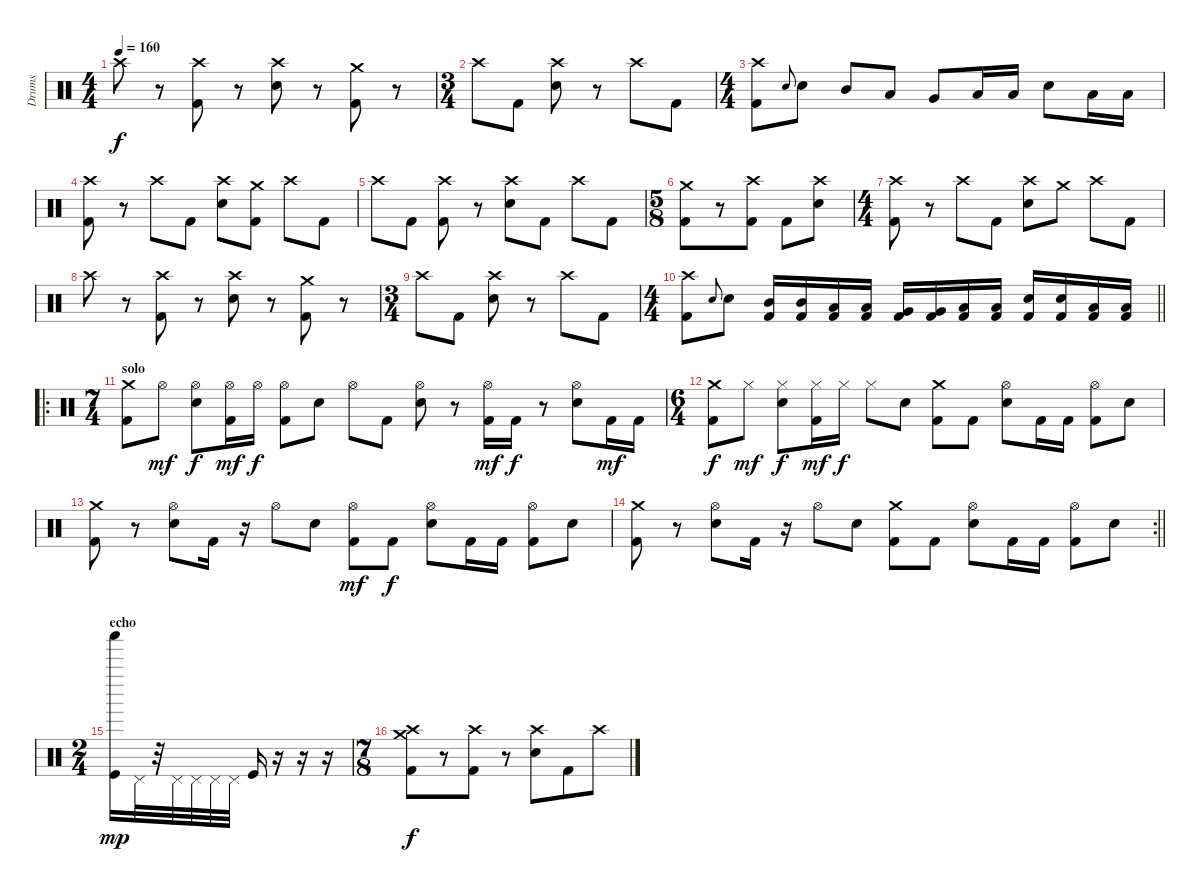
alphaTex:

\track ("Drums" "Drums") {instrument percussion}
\staff {score}
\articulation defaults
\ts (4 4)
\tempo 160
\clef neutral
\ks c "Crash high (hit)".8{dy f}
r.8 ("Crash high (hit)" "Kick (hit) 2").8 r.8 ("Crash high (hit)" "Electric Snare (hit)").8 r.8 ("Crash medium (hit)" "Kick (hit) 2").8 r.8 |
\ts (3 4)
"Crash high (hit)".8 "Kick (hit) 2".8 ("Crash high (hit)" "Electric Snare (hit)").8 r.8 "Crash high (hit)".8 "Kick (hit) 2".8 |
\ts (4 4)
("Crash high (hit)" "Kick (hit) 2").8 "Electric Snare (hit)".8{gr onbeat} "Electric Snare (hit)".8 "Mid Tom (hit)".8 "Low Tom (hit)".8 "Very Low Tom (hit)".8 "Low Tom (hit)".16 "Low Tom (hit)".16 "Electric Snare (hit)".8 "Low Tom (hit)".16 "Low Tom (hit)".16 |
("Crash high (hit)" "Kick (hit) 2").8 r.8 "Crash high (hit)".8 "Kick (hit) 2".8 ("Crash high (hit)" "Electric Snare (hit)").8 ("Crash medium (hit)" "Kick (hit) 2").8 "Crash high (hit)".8 "Kick (hit) 2".8 |
"Crash high (hit)".8 "Kick (hit) 2".8 ("Crash high (hit)" "Kick (hit) 2").8 r.8 ("Crash high (hit)" "Electric Snare (hit)").8 "Kick (hit) 2".8 "Crash high (hit)".8 "Kick (hit) 2".8 |
\ts (5 8)
("Crash medium (hit)" "Kick (hit) 2").8 r.8 ("Crash high (hit)" "Kick (hit) 2").8 "Kick (hit) 2".8 ("Crash high (hit)" "Electric Snare (hit)").8 |
\ts (4 4)
("Crash high (hit)" "Kick (hit) 2").8 r.8 "Crash high (hit)".8 "Kick (hit) 2".8 ("Crash high (hit)" "Electric Snare (hit)").8 "Crash medium (hit)".8 "Crash high (hit)".8 "Kick (hit) 2".8 |
"Crash high (hit)".8 r.8 ("Crash high (hit)" "Kick (hit) 2").8 r.8 ("Crash high (hit)" "Electric Snare (hit)").8 r.8 ("Crash medium (hit)" "Kick (hit) 2").8 r.8 |
\ts (3 4)
"Crash high (hit)".8 "Kick (hit) 2".8 ("Crash high (hit)" "Electric Snare (hit)").8 r.8 "Crash high (hit)".8 "Kick (hit) 2".8 |
\ts (4 4)
\barLineRight lightlight
("Crash high (hit)" "Kick (hit) 2").8 "Electric Snare (hit)".8{gr onbeat} "Electric Snare (hit)".8 ("Mid Tom (hit)" "Kick (hit) 2").16 ("Mid Tom (hit)" "Kick (hit) 2").16 ("Low Tom (hit)" "Kick (hit) 2").16 ("Low Tom (hit)" "Kick (hit) 2").16 ("Very Low Tom (hit)" "Kick (hit) 2").16 ("Very Low Tom (hit)" "Kick (hit) 2").16 ("Low Tom (hit)" "Kick (hit) 2").16 ("Low Tom (hit)" "Kick (hit) 2").16 ("Electric Snare (hit)" "Kick (hit) 2").16 ("Electric Snare (hit)" "Kick (hit) 2").16 ("Low Tom (hit)" "Kick (hit) 2").16 ("Low Tom (hit)" "Kick (hit) 2").16 |
\ro
\ts (7 4)
\section ("" "solo")
("Crash medium (hit)" "Kick (hit) 2").8 "Hi-Hat (open)".8{dy mf} ("Hi-Hat (open)" "Electric Snare (hit)").8{dy f} ("Hi-Hat (open)" "Kick (hit) 2").16{dy mf} "Hi-Hat (open)".16{dy f} ("Hi-Hat (open)" "Kick (hit) 2").8 "Electric Snare (hit)".8 "Hi-Hat (open)".8 "Kick (hit) 2".8 ("Hi-Hat (open)" "Electric Snare (hit)").8 r.8 ("Hi-Hat (open)" "Kick (hit) 2").16{dy mf} "Kick (hit) 2".16{dy f} r.8 ("Hi-Hat (open)" "Electric Snare (hit)").8 "Kick (hit) 2".16{dy mf} "Kick (hit) 2".16 |
\ts (6 4)
("Crash medium (hit)" "Kick (hit) 2").8{dy f} "Hi-Hat (closed)".8{dy mf} ("Hi-Hat (closed)" "Electric Snare (hit)").8{dy f} ("Hi-Hat (closed)" "Kick (hit) 2").16{dy mf} "Hi-Hat (closed)".16{dy f} "Hi-Hat (closed)".8 "Electric Snare (hit)".8 ("Crash medium (hit)" "Kick (hit) 2").8 "Kick (hit) 2".8 ("Hi-Hat (open)" "Electric Snare (hit)").8 "Kick (hit) 2".16 "Kick (hit) 2".16 ("Hi-Hat (open)" "Kick (hit) 2").8 "Electric Snare (hit)".8 |
("Crash medium (hit)" "Kick (hit) 2").8 r.8 ("Hi-Hat (open)" "Electric Snare (hit)").8 "Kick (hit) 2".16 r.16 "Hi-Hat (open)".8 "Electric Snare (hit)".8 ("Hi-Hat (open)" "Kick (hit) 2").8{dy mf} "Kick (hit) 2".8{dy f} ("Hi-Hat (open)" "Electric Snare (hit)").8 "Kick (hit) 2".16 "Kick (hit) 2".16 ("Hi-Hat (open)" "Kick (hit) 2").8 "Electric Snare (hit)".8 |
\rc 2
\barLineRight lightlight
("Crash medium (hit)" "Kick (hit) 2").8 r.8 ("Hi-Hat (open)" "Electric Snare (hit)").8 "Kick (hit) 2".16 r.16 "Hi-Hat (open)".8 "Electric Snare (hit)".8 ("Crash medium (hit)" "Kick (hit) 2").8 "Kick (hit) 2".8 ("Hi-Hat (open)" "Electric Snare (hit)").8 "Kick (hit) 2".16 "Kick (hit) 2".16 ("Hi-Hat (open)" "Kick (hit) 2").8 "Electric Snare (hit)".8 |
\ts (2 4)
\section ("" "echo")
("Shaker (hit)" "Kick (hit)").16{dy mp} "Pedal Hi-Hat (hit)".32 r.32 "Pedal Hi-Hat (hit)".32 "Pedal Hi-Hat (hit)".32 "Pedal Hi-Hat (hit)".32 "Pedal Hi-Hat (hit)".32 "Kick (hit)".16 r.16 r.16 r.16 |
\ts (7 8)
("Crash high (hit)" "Crash medium (hit)" "Kick (hit) 2").8{dy f} r.8 ("Crash high (hit)" "Kick (hit) 2").8 r.8 ("Crash high (hit)" "Electric Snare (hit)").8 "Kick (hit) 2".8 "Crash high (hit)".8
